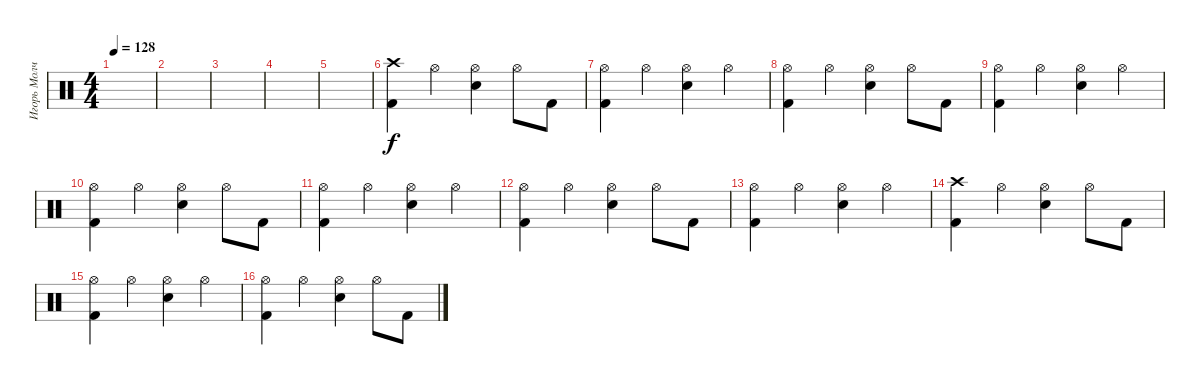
\track ("Игорь Молчанов" "Игорь Молч") {instrument percussion}
\staff {score}
\articulation defaults
\ts (4 4)
\tempo 128
\clef neutral
\ks c
|
|
|
|
|
("Kick (hit) 2" "Crash high (hit)").4 "Hi-Hat (open)".4 ("Snare (hit) 2" "Hi-Hat (open)").4 "Hi-Hat (open)".8 "Kick (hit) 2".8 |
("Hi-Hat (open)" "Kick (hit) 2").4 "Hi-Hat (open)".4 ("Snare (hit) 2" "Hi-Hat (open)").4 "Hi-Hat (open)".4 |
("Hi-Hat (open)" "Kick (hit) 2").4 "Hi-Hat (open)".4 ("Snare (hit) 2" "Hi-Hat (open)").4 "Hi-Hat (open)".8 "Kick (hit) 2".8 |
("Hi-Hat (open)" "Kick (hit) 2").4 "Hi-Hat (open)".4 ("Snare (hit) 2" "Hi-Hat (open)").4 "Hi-Hat (open)".4 |
("Hi-Hat (open)" "Kick (hit) 2").4 "Hi-Hat (open)".4 ("Snare (hit) 2" "Hi-Hat (open)").4 "Hi-Hat (open)".8 "Kick (hit) 2".8 |
("Hi-Hat (open)" "Kick (hit) 2").4 "Hi-Hat (open)".4 ("Snare (hit) 2" "Hi-Hat (open)").4 "Hi-Hat (open)".4 |
("Hi-Hat (open)" "Kick (hit) 2").4 "Hi-Hat (open)".4 ("Snare (hit) 2" "Hi-Hat (open)").4 "Hi-Hat (open)".8 "Kick (hit) 2".8 |
("Hi-Hat (open)" "Kick (hit) 2").4 "Hi-Hat (open)".4 ("Snare (hit) 2" "Hi-Hat (open)").4 "Hi-Hat (open)".4 |
("Kick (hit) 2" "Crash high (hit)").4 "Hi-Hat (open)".4 ("Snare (hit) 2" "Hi-Hat (open)").4 "Hi-Hat (open)".8 "Kick (hit) 2".8 |
("Hi-Hat (open)" "Kick (hit) 2").4 "Hi-Hat (open)".4 ("Snare (hit) 2" "Hi-Hat (open)").4 "Hi-Hat (open)".4 |
("Hi-Hat (open)" "Kick (hit) 2").4 "Hi-Hat (open)".4 ("Snare (hit) 2" "Hi-Hat (open)").4 "Hi-Hat (open)".8 "Kick (hit) 2".8
